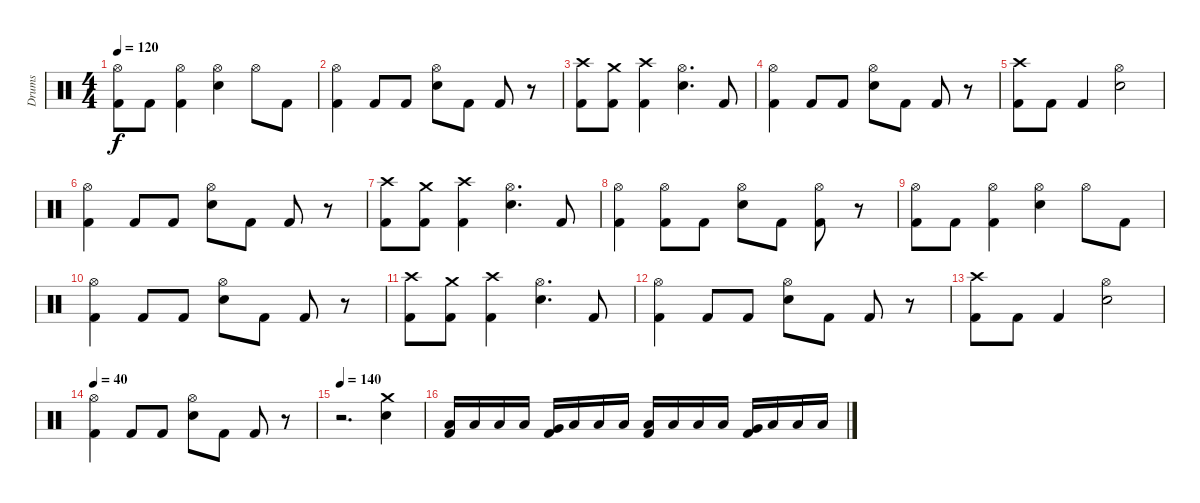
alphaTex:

\track ("Drums" "Drums") {instrument percussion}
\staff {score}
\articulation defaults
\ts (4 4)
\tempo 120
\clef neutral
\ks c
("Hi-Hat (open)" "Kick (hit) 2").8{dy f} "Kick (hit) 2".8 ("Hi-Hat (open)" "Kick (hit) 2").4 ("Hi-Hat (open)" "Snare (hit) 2").4 "Hi-Hat (open)".8 "Kick (hit) 2".8 |
("Hi-Hat (open)" "Kick (hit) 2").4 "Kick (hit) 2".8 "Kick (hit) 2".8 ("Hi-Hat (open)" "Snare (hit) 2").8 "Kick (hit) 2".8 "Kick (hit) 2".8 r.8 |
("Crash high (hit)" "Kick (hit) 2").8 ("Crash medium (hit)" "Kick (hit) 2").8 ("Crash high (hit)" "Kick (hit) 2").4 ("Hi-Hat (open)" "Snare (hit) 2").4{d} "Kick (hit) 2".8 |
("Hi-Hat (open)" "Kick (hit) 2").4 "Kick (hit) 2".8 "Kick (hit) 2".8 ("Hi-Hat (open)" "Snare (hit) 2").8 "Kick (hit) 2".8 "Kick (hit) 2".8 r.8 |
("Crash high (hit)" "Kick (hit) 2").8 "Kick (hit) 2".8 "Kick (hit) 2".4 ("Hi-Hat (open)" "Snare (hit) 2").2 |
("Hi-Hat (open)" "Kick (hit) 2").4 "Kick (hit) 2".8 "Kick (hit) 2".8 ("Hi-Hat (open)" "Snare (hit) 2").8 "Kick (hit) 2".8 "Kick (hit) 2".8 r.8 |
("Crash high (hit)" "Kick (hit) 2").8 ("Crash medium (hit)" "Kick (hit) 2").8 ("Crash high (hit)" "Kick (hit) 2").4 ("Hi-Hat (open)" "Snare (hit) 2").4{d} "Kick (hit) 2".8 |
("Hi-Hat (open)" "Kick (hit) 2").4 ("Hi-Hat (open)" "Kick (hit) 2").8 "Kick (hit) 2".8 ("Hi-Hat (open)" "Snare (hit) 2").8 "Kick (hit) 2".8 ("Hi-Hat (open)" "Kick (hit) 2").8 r.8 |
("Hi-Hat (open)" "Kick (hit) 2").8 "Kick (hit) 2".8 ("Hi-Hat (open)" "Kick (hit) 2").4 ("Hi-Hat (open)" "Snare (hit) 2").4 "Hi-Hat (open)".8 "Kick (hit) 2".8 |
("Hi-Hat (open)" "Kick (hit) 2").4 "Kick (hit) 2".8 "Kick (hit) 2".8 ("Hi-Hat (open)" "Snare (hit) 2").8 "Kick (hit) 2".8 "Kick (hit) 2".8 r.8 |
("Crash high (hit)" "Kick (hit) 2").8 ("Crash medium (hit)" "Kick (hit) 2").8 ("Crash high (hit)" "Kick (hit) 2").4 ("Hi-Hat (open)" "Snare (hit) 2").4{d} "Kick (hit) 2".8 |
("Hi-Hat (open)" "Kick (hit) 2").4 "Kick (hit) 2".8 "Kick (hit) 2".8 ("Hi-Hat (open)" "Snare (hit) 2").8 "Kick (hit) 2".8 "Kick (hit) 2".8 r.8 |
("Crash high (hit)" "Kick (hit) 2").8 "Kick (hit) 2".8 "Kick (hit) 2".4 ("Hi-Hat (open)" "Snare (hit) 2").2 |
\tempo 40
("Hi-Hat (open)" "Kick (hit) 2").4 "Kick (hit) 2".8 "Kick (hit) 2".8 ("Hi-Hat (open)" "Snare (hit) 2").8 "Kick (hit) 2".8 "Kick (hit) 2".8 r.8 |
\tempo 140
r.2{d} ("Crash medium (hit)" "Snare (hit) 2").4 |
("Low Floor Tom (hit)" "Kick (hit) 2").16 "Low Floor Tom (hit)".16 "Low Floor Tom (hit)".16 "Low Floor Tom (hit)".16 ("Very Low Tom (hit)" "Kick (hit) 2").16 "Low Floor Tom (hit)".16 "Low Floor Tom (hit)".16 "Low Floor Tom (hit)".16 ("Low Floor Tom (hit)" "Kick (hit) 2").16 "Low Floor Tom (hit)".16 "Low Floor Tom (hit)".16 "Low Floor Tom (hit)".16 ("Very Low Tom (hit)" "Kick (hit) 2").16 "Low Floor Tom (hit)".16 "Low Floor Tom (hit)".16 "Low Floor Tom (hit)".16
